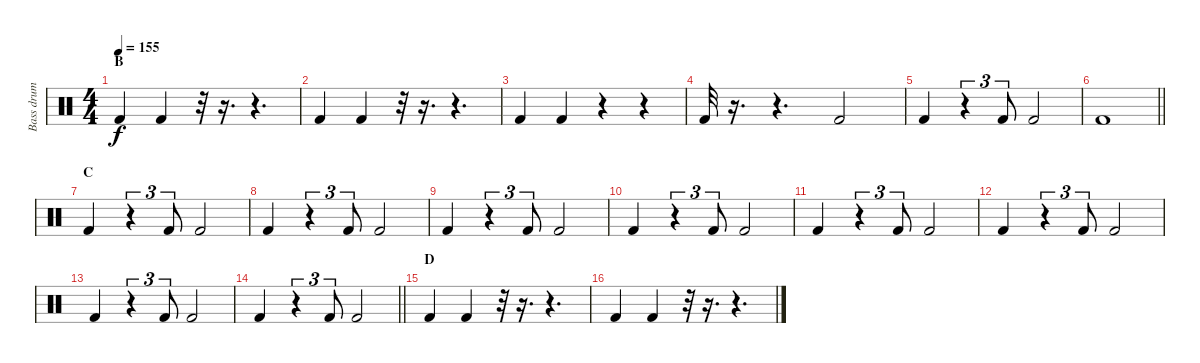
\track ("Bass drum" "Bass drum") {instrument percussion}
\staff {score}
\articulation defaults
\ts (4 4)
\section ("" "B")
\tempo 155
\clef neutral
\ks c "Kick (hit) 2".4{dy f} "Kick (hit) 2".4
r.32 r.16{d} r.4{d} |
"Kick (hit) 2".4 "Kick (hit) 2".4 r.32 r.16{d} r.4{d} |
"Kick (hit) 2".4 "Kick (hit) 2".4 r.4 r.4 |
"Kick (hit) 2".32 r.16{d} r.4{d} "Kick (hit) 2".2 |
"Kick (hit) 2".4 r.4{tu (3 2)} "Kick (hit) 2".8{tu (3 2)} "Kick (hit) 2".2 |
\barLineRight lightlight "Kick (hit) 2".1
|
\section ("" "C")
"Kick (hit) 2".4 r.4{tu (3 2)} "Kick (hit) 2".8{tu (3 2)} "Kick (hit) 2".2 |
"Kick (hit) 2".4 r.4{tu (3 2)} "Kick (hit) 2".8{tu (3 2)} "Kick (hit) 2".2 |
"Kick (hit) 2".4 r.4{tu (3 2)} "Kick (hit) 2".8{tu (3 2)} "Kick (hit) 2".2 |
"Kick (hit) 2".4 r.4{tu (3 2)} "Kick (hit) 2".8{tu (3 2)} "Kick (hit) 2".2 |
"Kick (hit) 2".4 r.4{tu (3 2)} "Kick (hit) 2".8{tu (3 2)} "Kick (hit) 2".2 |
"Kick (hit) 2".4 r.4{tu (3 2)} "Kick (hit) 2".8{tu (3 2)} "Kick (hit) 2".2 |
"Kick (hit) 2".4 r.4{tu (3 2)} "Kick (hit) 2".8{tu (3 2)} "Kick (hit) 2".2 |
\barLineRight lightlight "Kick (hit) 2".4
r.4{tu (3 2)} "Kick (hit) 2".8{tu (3 2)} "Kick (hit) 2".2 |
\section ("" "D")
"Kick (hit) 2".4 "Kick (hit) 2".4 r.32 r.16{d} r.4{d} |
"Kick (hit) 2".4 "Kick (hit) 2".4 r.32 r.16{d} r.4{d}
